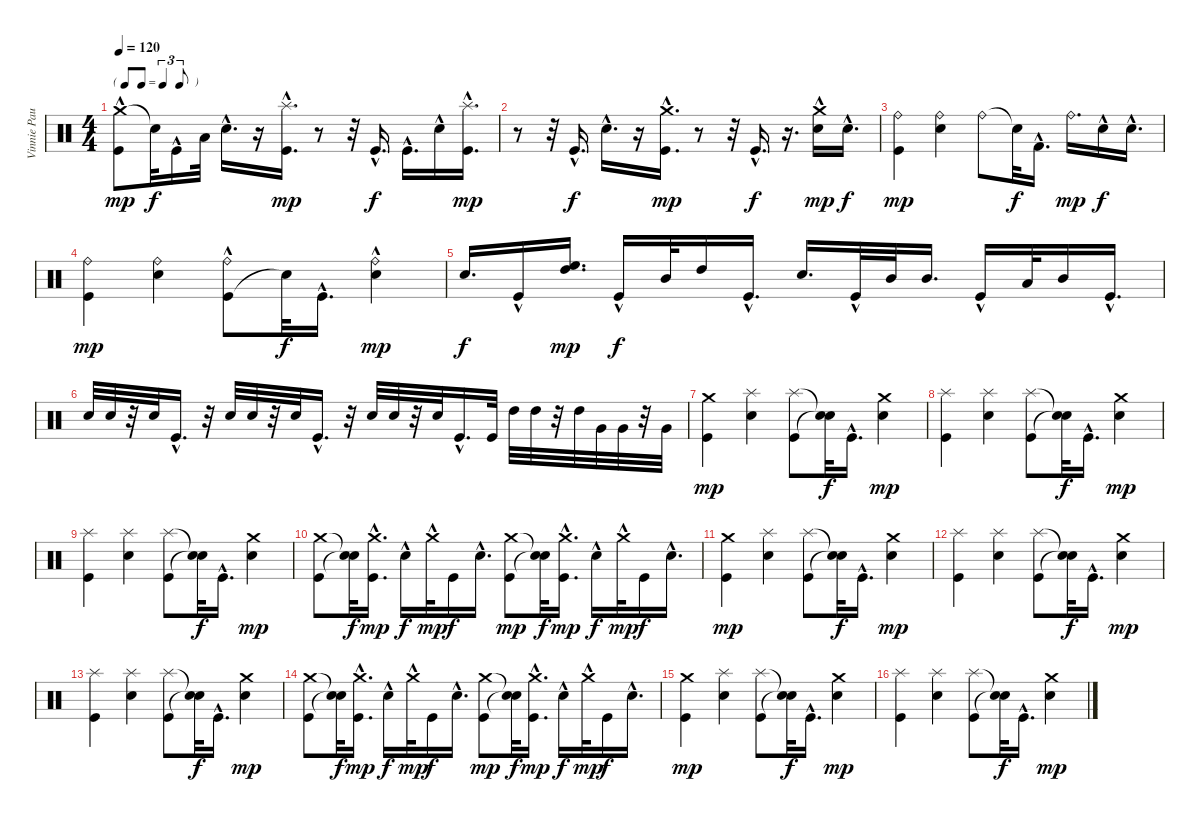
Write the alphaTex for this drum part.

\track ("Vinnie Paul (Drums)" "Vinnie Pau") {instrument percussion}
\staff {score}
\articulation defaults
\ts (4 4)
\tf triplet8th
\tempo 120
\clef neutral
\ks c
("Crash medium (hit)" "Kick (hit)"{hac}).8{dy mp} "Snare (hit)"{t}.32{dy f} "Kick (hit)"{hac}.16 "Low Floor Tom (hit)".32 "Electric Snare (hit)"{hac}.16{d} r.16 ("Splash (hit)"{hac} "Kick (hit)"{hac}).16{d dy mp} r.8 r.32 "Kick (hit)"{hac}.16{d dy f} "Kick (hit)"{hac}.16{d} "Electric Snare (hit)"{hac}.16 ("Splash (hit)"{hac} "Kick (hit)"{hac}).16{d dy mp} |
r.8 r.32 "Kick (hit)"{hac}.16{d dy f} "Electric Snare (hit)"{hac}.16{d} r.16 ("Crash medium (hit)"{hac} "Kick (hit)"{hac}).16{d dy mp} r.8 r.32 "Kick (hit)"{hac}.16{d dy f} r.16{d} ("Electric Snare (hit)"{hac} "Crash medium (hit)"{hac}).16{dy mp} "Electric Snare (hit)"{hac}.16{d dy f} |
("Kick (hit)" "Ride (bell)").4{dy mp} ("Electric Snare (hit)" "Ride (bell)").4 "Ride (bell)".8 "Snare (hit)"{t}.32{dy f} "Kick (hit) 2"{hac}.16{d} "Ride (bell)".16{d dy mp} "Electric Snare (hit)"{hac}.16{dy f} "Electric Snare (hit)"{hac}.16{d} |
("Kick (hit)" "Ride (bell)").4{dy mp} ("Electric Snare (hit)" "Ride (bell)").4 ("Kick (hit)"{hac} "Ride (bell)").8 "Snare (hit)"{t}.32{dy f} "Kick (hit)"{hac}.16{d} ("Electric Snare (hit)"{hac} "Ride (bell)").4{dy mp} |
"Electric Snare (hit)".16{d dy f} "Kick (hit)"{hac}.16 ("High Floor Tom (hit)" "High Tom (hit)").16{d dy mp} "Kick (hit)"{hac}.16{dy f} "Mid Tom (hit)".32 "High Tom (hit)".16 "Kick (hit)"{hac}.16{d} "Electric Snare (hit)".16{d} "Kick (hit)"{hac}.32 "Mid Tom (hit)".32 "Mid Tom (hit)".16{d} "Kick (hit)"{hac}.16 "Low Tom (hit)".32 "Mid Tom (hit)".16 "Kick (hit)"{hac}.16{d} |
"Electric Snare (hit)".32 "Electric Snare (hit)".32 r.32 "Electric Snare (hit)".32 "Kick (hit)"{hac}.16{d} r.32 "Electric Snare (hit)".32 "Electric Snare (hit)".32 r.32 "Electric Snare (hit)".32 "Kick (hit)"{hac}.16{d} r.32 "Electric Snare (hit)".32 "Electric Snare (hit)".32 r.32 "Electric Snare (hit)".32 "Kick (hit)"{hac}.16{d} "Kick (hit)".32 "High Tom (hit)".32 "High Tom (hit)".32 r.32 "High Tom (hit)".32 "Very Low Tom (hit)".32 "Very Low Tom (hit)".32 r.32 "Very Low Tom (hit)".32 |
("Kick (hit)" "Crash medium (hit)").4{dy mp} ("Electric Snare (hit)" "Splash (hit)").4 ("Kick (hit)" "Splash (hit)").8 ("Snare (hit)"{t} "Snare (hit)"{t}).32{dy f} "Kick (hit)"{hac}.16{d} ("Electric Snare (hit)" "Crash medium (hit)").4{dy mp} |
("Kick (hit)" "Splash (hit)").4 ("Electric Snare (hit)" "Splash (hit)").4 ("Kick (hit)" "Splash (hit)").8 ("Snare (hit)"{t} "Snare (hit)"{t}).32{dy f} "Kick (hit)"{hac}.16{d} ("Electric Snare (hit)" "Crash medium (hit)").4{dy mp} |
("Kick (hit)" "Splash (hit)").4 ("Electric Snare (hit)" "Splash (hit)").4 ("Kick (hit)" "Splash (hit)").8 ("Snare (hit)"{t} "Snare (hit)"{t}).32{dy f} "Kick (hit)"{hac}.16{d} ("Electric Snare (hit)" "Crash medium (hit)").4{dy mp} |
("Crash medium (hit)" "Kick (hit)").8 ("Snare (hit)"{t} "Snare (hit)"{t}).32{dy f} ("Crash medium (hit)"{hac} "Kick (hit)").16{d dy mp} "Electric Snare (hit)"{hac}.16{dy f} "Crash medium (hit)"{hac}.32{dy mp} "Kick (hit)".16{dy f} "Electric Snare (hit)"{hac}.16{d} ("Crash medium (hit)" "Kick (hit)").8{dy mp} ("Snare (hit)"{t} "Snare (hit)"{t}).32{dy f} ("Crash medium (hit)"{hac} "Kick (hit)").16{d dy mp} "Electric Snare (hit)"{hac}.16{dy f} "Crash medium (hit)"{hac}.32{dy mp} "Kick (hit)".16{dy f} "Electric Snare (hit)"{hac}.16{d} |
("Kick (hit)" "Crash medium (hit)").4{dy mp} ("Electric Snare (hit)" "Splash (hit)").4 ("Kick (hit)" "Splash (hit)").8 ("Snare (hit)"{t} "Snare (hit)"{t}).32{dy f} "Kick (hit)"{hac}.16{d} ("Electric Snare (hit)" "Crash medium (hit)").4{dy mp} |
("Kick (hit)" "Splash (hit)").4 ("Electric Snare (hit)" "Splash (hit)").4 ("Kick (hit)" "Splash (hit)").8 ("Snare (hit)"{t} "Snare (hit)"{t}).32{dy f} "Kick (hit)"{hac}.16{d} ("Electric Snare (hit)" "Crash medium (hit)").4{dy mp} |
("Kick (hit)" "Splash (hit)").4 ("Electric Snare (hit)" "Splash (hit)").4 ("Kick (hit)" "Splash (hit)").8 ("Snare (hit)"{t} "Snare (hit)"{t}).32{dy f} "Kick (hit)"{hac}.16{d} ("Electric Snare (hit)" "Crash medium (hit)").4{dy mp} |
("Crash medium (hit)" "Kick (hit)").8 ("Snare (hit)"{t} "Snare (hit)"{t}).32{dy f} ("Crash medium (hit)"{hac} "Kick (hit)").16{d dy mp} "Electric Snare (hit)"{hac}.16{dy f} "Crash medium (hit)"{hac}.32{dy mp} "Kick (hit)".16{dy f} "Electric Snare (hit)"{hac}.16{d} ("Crash medium (hit)" "Kick (hit)").8{dy mp} ("Snare (hit)"{t} "Snare (hit)"{t}).32{dy f} ("Crash medium (hit)"{hac} "Kick (hit)").16{d dy mp} "Electric Snare (hit)"{hac}.16{dy f} "Crash medium (hit)"{hac}.32{dy mp} "Kick (hit)".16{dy f} "Electric Snare (hit)"{hac}.16{d} |
("Kick (hit)" "Crash medium (hit)").4{dy mp} ("Electric Snare (hit)" "Splash (hit)").4 ("Kick (hit)" "Splash (hit)").8 ("Snare (hit)"{t} "Snare (hit)"{t}).32{dy f} "Kick (hit)"{hac}.16{d} ("Electric Snare (hit)" "Crash medium (hit)").4{dy mp} |
("Kick (hit)" "Splash (hit)").4 ("Electric Snare (hit)" "Splash (hit)").4 ("Kick (hit)" "Splash (hit)").8 ("Snare (hit)"{t} "Snare (hit)"{t}).32{dy f} "Kick (hit)"{hac}.16{d} ("Electric Snare (hit)" "Crash medium (hit)").4{dy mp}
